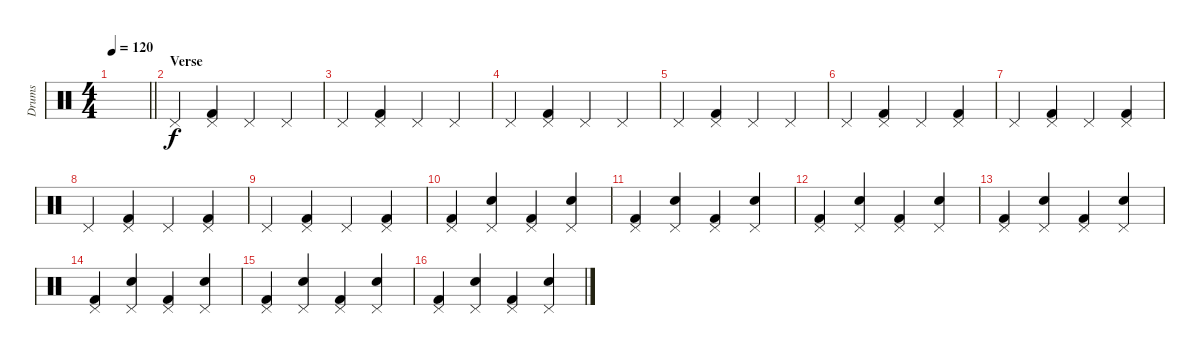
\track ("Drums" "Drums") {instrument percussion}
\staff {score}
\articulation defaults
\ts (4 4)
\tempo 120
\clef neutral
\barLineRight lightlight
\ks c
|
\section ("" "Verse")
"Pedal Hi-Hat (hit)".4 ("Pedal Hi-Hat (hit)" "Kick (hit) 2").4 "Pedal Hi-Hat (hit)".4 "Pedal Hi-Hat (hit)".4 |
"Pedal Hi-Hat (hit)".4 ("Pedal Hi-Hat (hit)" "Kick (hit) 2").4 "Pedal Hi-Hat (hit)".4 "Pedal Hi-Hat (hit)".4 |
"Pedal Hi-Hat (hit)".4 ("Pedal Hi-Hat (hit)" "Kick (hit) 2").4 "Pedal Hi-Hat (hit)".4 "Pedal Hi-Hat (hit)".4 |
"Pedal Hi-Hat (hit)".4 ("Pedal Hi-Hat (hit)" "Kick (hit) 2").4 "Pedal Hi-Hat (hit)".4 "Pedal Hi-Hat (hit)".4 |
"Pedal Hi-Hat (hit)".4 ("Pedal Hi-Hat (hit)" "Kick (hit) 2").4 "Pedal Hi-Hat (hit)".4 ("Pedal Hi-Hat (hit)" "Kick (hit) 2").4 |
"Pedal Hi-Hat (hit)".4 ("Pedal Hi-Hat (hit)" "Kick (hit) 2").4 "Pedal Hi-Hat (hit)".4 ("Pedal Hi-Hat (hit)" "Kick (hit) 2").4 |
"Pedal Hi-Hat (hit)".4 ("Pedal Hi-Hat (hit)" "Kick (hit) 2").4 "Pedal Hi-Hat (hit)".4 ("Pedal Hi-Hat (hit)" "Kick (hit) 2").4 |
"Pedal Hi-Hat (hit)".4 ("Pedal Hi-Hat (hit)" "Kick (hit) 2").4 "Pedal Hi-Hat (hit)".4 ("Pedal Hi-Hat (hit)" "Kick (hit) 2").4 |
("Pedal Hi-Hat (hit)" "Kick (hit) 2").4 ("Snare (hit) 2" "Pedal Hi-Hat (hit)").4 ("Pedal Hi-Hat (hit)" "Kick (hit) 2").4 ("Snare (hit) 2" "Pedal Hi-Hat (hit)").4 |
("Pedal Hi-Hat (hit)" "Kick (hit) 2").4 ("Snare (hit) 2" "Pedal Hi-Hat (hit)").4 ("Pedal Hi-Hat (hit)" "Kick (hit) 2").4 ("Snare (hit) 2" "Pedal Hi-Hat (hit)").4 |
("Pedal Hi-Hat (hit)" "Kick (hit) 2").4 ("Snare (hit) 2" "Pedal Hi-Hat (hit)").4 ("Pedal Hi-Hat (hit)" "Kick (hit) 2").4 ("Snare (hit) 2" "Pedal Hi-Hat (hit)").4 |
("Pedal Hi-Hat (hit)" "Kick (hit) 2").4 ("Snare (hit) 2" "Pedal Hi-Hat (hit)").4 ("Pedal Hi-Hat (hit)" "Kick (hit) 2").4 ("Snare (hit) 2" "Pedal Hi-Hat (hit)").4 |
("Pedal Hi-Hat (hit)" "Kick (hit) 2").4 ("Snare (hit) 2" "Pedal Hi-Hat (hit)").4 ("Pedal Hi-Hat (hit)" "Kick (hit) 2").4 ("Snare (hit) 2" "Pedal Hi-Hat (hit)").4 |
("Pedal Hi-Hat (hit)" "Kick (hit) 2").4 ("Snare (hit) 2" "Pedal Hi-Hat (hit)").4 ("Pedal Hi-Hat (hit)" "Kick (hit) 2").4 ("Snare (hit) 2" "Pedal Hi-Hat (hit)").4 |
("Pedal Hi-Hat (hit)" "Kick (hit) 2").4 ("Snare (hit) 2" "Pedal Hi-Hat (hit)").4 ("Pedal Hi-Hat (hit)" "Kick (hit) 2").4 ("Snare (hit) 2" "Pedal Hi-Hat (hit)").4
